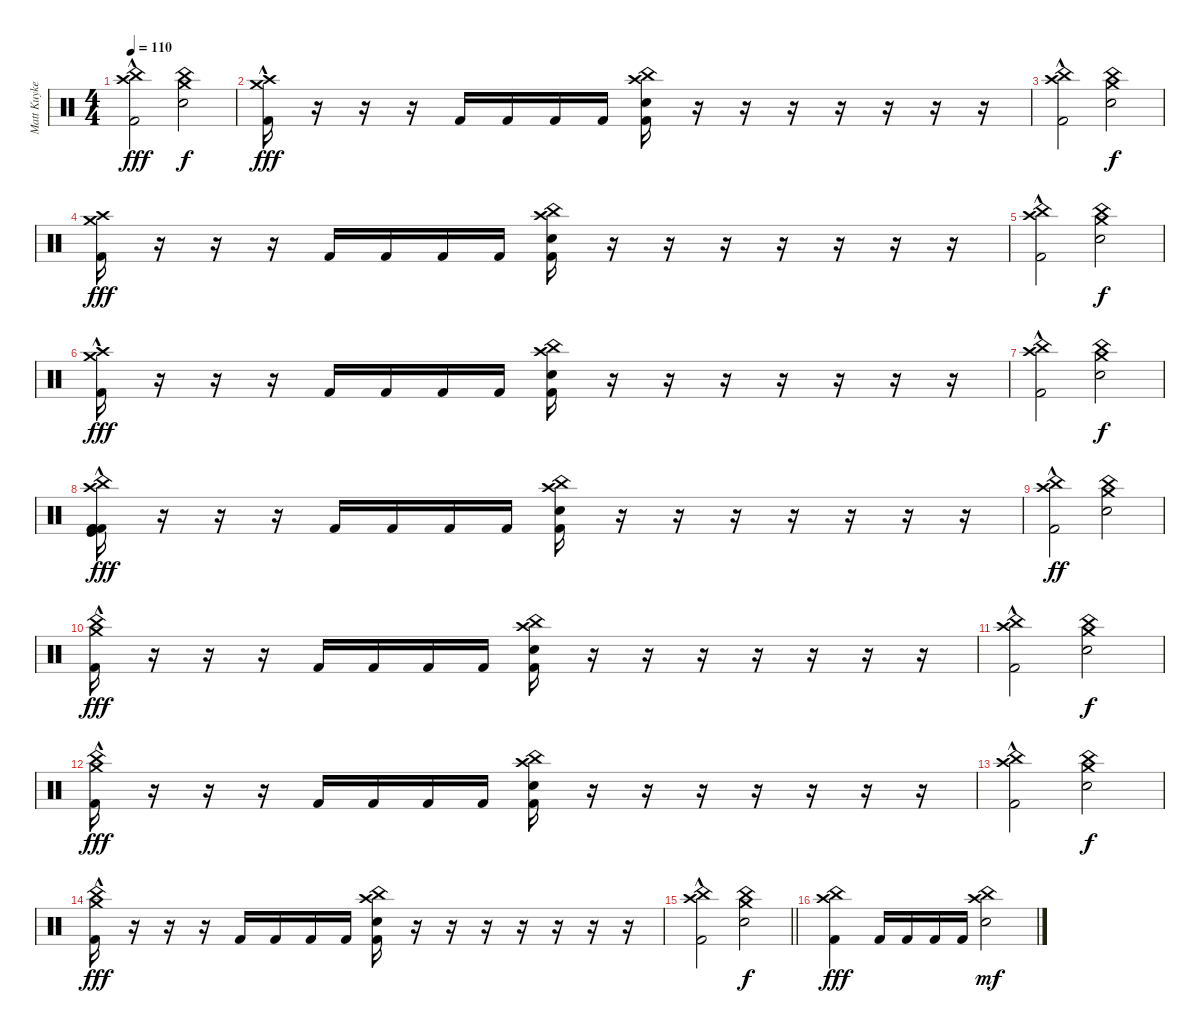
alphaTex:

\track ("Matt Kuykendall" "Matt Kuyke") {instrument percussion}
\staff {score}
\articulation defaults
\ts (4 4)
\tempo 110
\clef neutral
\ks c
("China (hit)" "Crash high (hit)" "Kick (hit) 2"{hac}).2{dy fff} ("China (hit)" "Crash medium (hit)" "Electric Snare (hit)").2{dy f} |
("Crash high (hit)" "Crash medium (hit)" "Kick (hit) 2"{hac}).16{dy fff} r.16 r.16 r.16 "Kick (hit) 2".16 "Kick (hit) 2".16 "Kick (hit) 2".16 "Kick (hit) 2".16 ("Crash high (hit)" "China (hit)" "Electric Snare (hit)" "Kick (hit) 2").16 r.16 r.16 r.16 r.16 r.16 r.16 r.16 |
("China (hit)" "Crash high (hit)" "Kick (hit) 2"{hac}).2 ("China (hit)" "Crash medium (hit)" "Electric Snare (hit)").2{dy f} |
("Crash high (hit)" "Crash medium (hit)" "Kick (hit) 2").16{dy fff} r.16 r.16 r.16 "Kick (hit) 2".16 "Kick (hit) 2".16 "Kick (hit) 2".16 "Kick (hit) 2".16 ("Crash high (hit)" "China (hit)" "Electric Snare (hit)" "Kick (hit) 2").16 r.16 r.16 r.16 r.16 r.16 r.16 r.16 |
("China (hit)" "Crash high (hit)" "Kick (hit) 2"{hac}).2 ("China (hit)" "Crash medium (hit)" "Electric Snare (hit)").2{dy f} |
("Crash high (hit)" "Crash medium (hit)" "Kick (hit) 2"{hac}).16{dy fff} r.16 r.16 r.16 "Kick (hit) 2".16 "Kick (hit) 2".16 "Kick (hit) 2".16 "Kick (hit) 2".16 ("Crash high (hit)" "China (hit)" "Electric Snare (hit)" "Kick (hit) 2").16 r.16 r.16 r.16 r.16 r.16 r.16 r.16 |
("China (hit)" "Crash high (hit)" "Kick (hit) 2"{hac}).2 ("China (hit)" "Crash medium (hit)" "Electric Snare (hit)").2{dy f} |
("Crash high (hit)"{hac} "China (hit)"{hac} "Kick (hit)" "Kick (hit) 2" "Kick (hit) 2" "Kick (hit) 2"{hac}).16{dy fff} r.16 r.16 r.16 "Kick (hit) 2".16 "Kick (hit) 2".16 "Kick (hit) 2".16 "Kick (hit) 2".16 ("Crash high (hit)" "China (hit)" "Electric Snare (hit)" "Kick (hit) 2").16 r.16 r.16 r.16 r.16 r.16 r.16 r.16 |
("China (hit)" "Crash high (hit)" "Kick (hit) 2"{hac}).2{dy ff} ("China (hit)" "Crash medium (hit)" "Electric Snare (hit)").2 |
("China (hit)"{hac} "Crash medium (hit)"{hac} "Kick (hit) 2"{hac}).16{dy fff} r.16 r.16 r.16 "Kick (hit) 2".16 "Kick (hit) 2".16 "Kick (hit) 2".16 "Kick (hit) 2".16 ("Crash high (hit)" "China (hit)" "Electric Snare (hit)" "Kick (hit) 2").16 r.16 r.16 r.16 r.16 r.16 r.16 r.16 |
("China (hit)" "Crash high (hit)" "Kick (hit) 2"{hac}).2 ("China (hit)" "Crash medium (hit)" "Electric Snare (hit)").2{dy f} |
("China (hit)"{hac} "Crash medium (hit)"{hac} "Kick (hit) 2"{hac}).16{dy fff} r.16 r.16 r.16 "Kick (hit) 2".16 "Kick (hit) 2".16 "Kick (hit) 2".16 "Kick (hit) 2".16 ("Crash high (hit)" "China (hit)" "Electric Snare (hit)" "Kick (hit) 2").16 r.16 r.16 r.16 r.16 r.16 r.16 r.16 |
("China (hit)" "Crash high (hit)" "Kick (hit) 2"{hac}).2 ("China (hit)" "Crash medium (hit)" "Electric Snare (hit)").2{dy f} |
("China (hit)"{hac} "Crash medium (hit)"{hac} "Kick (hit) 2"{hac}).16{dy fff} r.16 r.16 r.16 "Kick (hit) 2".16 "Kick (hit) 2".16 "Kick (hit) 2".16 "Kick (hit) 2".16 ("Crash high (hit)" "China (hit)" "Electric Snare (hit)" "Kick (hit) 2").16 r.16 r.16 r.16 r.16 r.16 r.16 r.16 |
\barLineRight lightlight
("China (hit)" "Crash high (hit)" "Kick (hit) 2"{hac}).2 ("China (hit)" "Crash medium (hit)" "Electric Snare (hit)").2{dy f} |
("Crash high (hit)" "China (hit)" "Kick (hit) 2").4{dy fff} "Kick (hit) 2".16 "Kick (hit) 2".16 "Kick (hit) 2".16 "Kick (hit) 2".16 ("Crash high (hit)" "China (hit)" "Electric Snare (hit)").2{dy mf}
